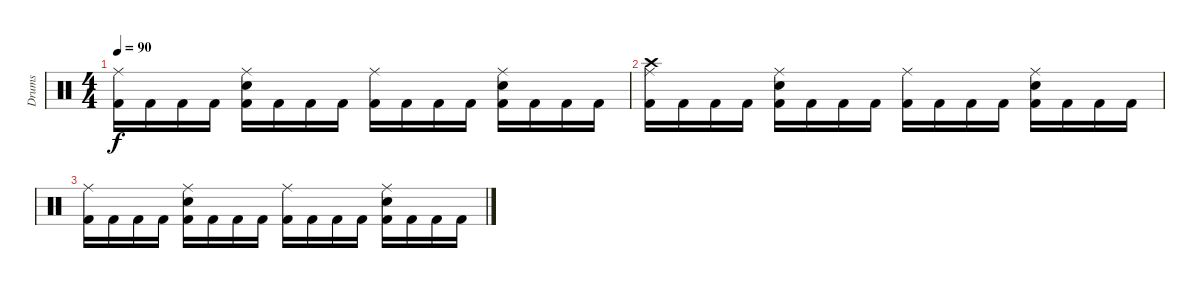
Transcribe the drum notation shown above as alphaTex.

\track ("Drums" "Drums") {instrument percussion}
\staff {score}
\articulation defaults
\ts (4 4)
\tempo 90
\clef neutral
\ks c
("Ride (middle)" "Kick (hit) 2").16{dy f} "Kick (hit) 2".16 "Kick (hit) 2".16 "Kick (hit) 2".16 ("Ride (middle)" "Snare (hit) 2" "Kick (hit) 2").16 "Kick (hit) 2".16 "Kick (hit) 2".16 "Kick (hit) 2".16 ("Ride (middle)" "Kick (hit) 2").16 "Kick (hit) 2".16 "Kick (hit) 2".16 "Kick (hit) 2".16 ("Ride (middle)" "Snare (hit) 2" "Kick (hit) 2").16 "Kick (hit) 2".16 "Kick (hit) 2".16 "Kick (hit) 2".16 |
("Crash high (hit)" "Ride (middle)" "Kick (hit) 2").16 "Kick (hit) 2".16 "Kick (hit) 2".16 "Kick (hit) 2".16 ("Ride (middle)" "Snare (hit) 2" "Kick (hit) 2").16 "Kick (hit) 2".16 "Kick (hit) 2".16 "Kick (hit) 2".16 ("Ride (middle)" "Kick (hit) 2").16 "Kick (hit) 2".16 "Kick (hit) 2".16 "Kick (hit) 2".16 ("Ride (middle)" "Snare (hit) 2" "Kick (hit) 2").16 "Kick (hit) 2".16 "Kick (hit) 2".16 "Kick (hit) 2".16 |
("Ride (middle)" "Kick (hit) 2").16 "Kick (hit) 2".16 "Kick (hit) 2".16 "Kick (hit) 2".16 ("Ride (middle)" "Snare (hit) 2" "Kick (hit) 2").16 "Kick (hit) 2".16 "Kick (hit) 2".16 "Kick (hit) 2".16 ("Ride (middle)" "Kick (hit) 2").16 "Kick (hit) 2".16 "Kick (hit) 2".16 "Kick (hit) 2".16 ("Ride (middle)" "Snare (hit) 2" "Kick (hit) 2").16 "Kick (hit) 2".16 "Kick (hit) 2".16 "Kick (hit) 2".16
